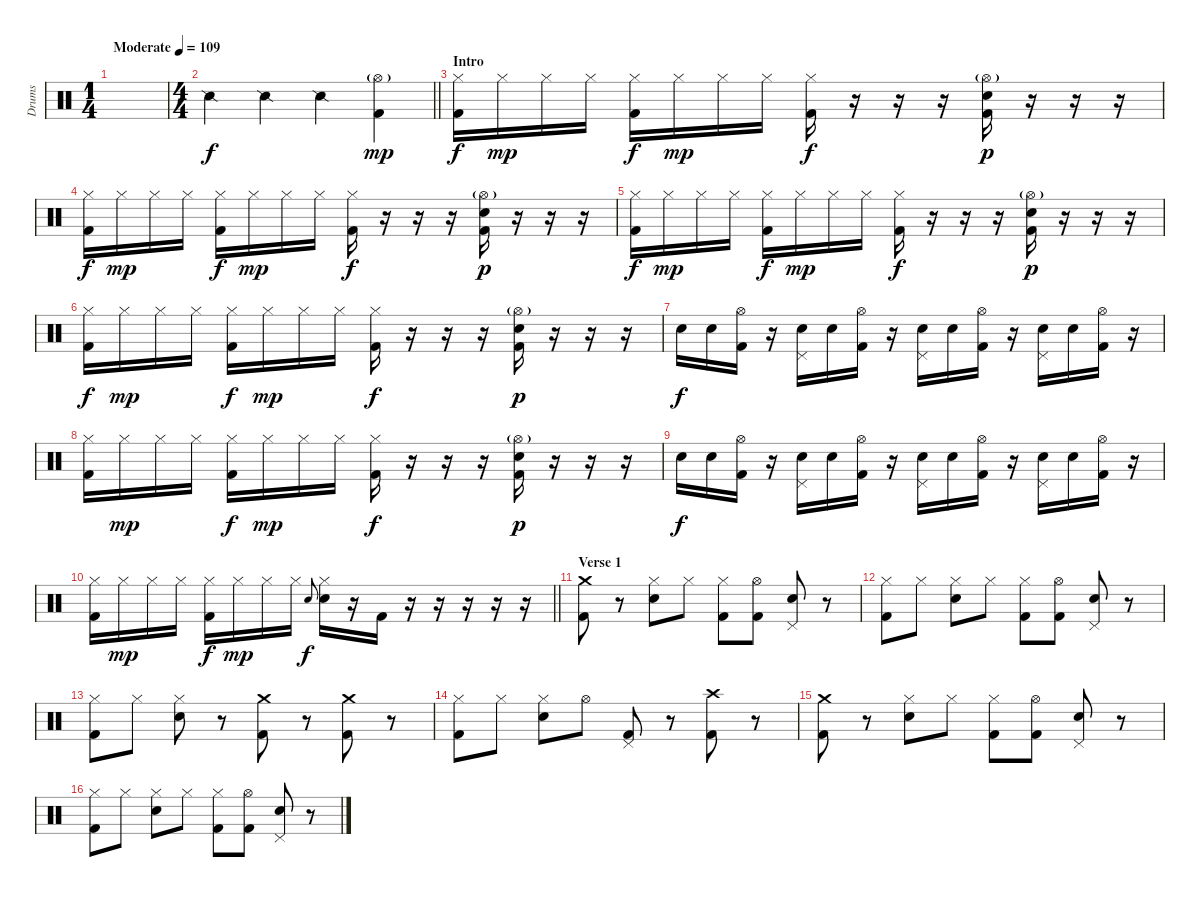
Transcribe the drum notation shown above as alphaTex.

\track ("Drums" "Drums") {instrument percussion}
\staff {score}
\articulation defaults
\ts (1 4)
\tempo (109 "Moderate")
\clef neutral
\ks c
|
\ts (4 4)
\barLineRight lightlight "Snare (side stick) 2".4 "Snare (side stick) 2".4 "Snare (side stick) 2".4
("Hi-Hat (open)"{g} "Kick (hit) 2").4{dy mp} |
\section ("" "Intro")
("Hi-Hat (closed)" "Kick (hit) 2").16{dy f} "Hi-Hat (closed)".16{dy mp} "Hi-Hat (closed)".16 "Hi-Hat (closed)".16 ("Hi-Hat (closed)" "Kick (hit) 2").16{dy f} "Hi-Hat (closed)".16{dy mp} "Hi-Hat (closed)".16 "Hi-Hat (closed)".16 ("Hi-Hat (closed)" "Kick (hit) 2").16{dy f} r.16 r.16 r.16 ("Hi-Hat (open)"{g} "Snare (hit) 2" "Kick (hit) 2").16{dy p} r.16 r.16 r.16 |
("Hi-Hat (closed)" "Kick (hit) 2").16{dy f} "Hi-Hat (closed)".16{dy mp} "Hi-Hat (closed)".16 "Hi-Hat (closed)".16 ("Hi-Hat (closed)" "Kick (hit) 2").16{dy f} "Hi-Hat (closed)".16{dy mp} "Hi-Hat (closed)".16 "Hi-Hat (closed)".16 ("Hi-Hat (closed)" "Kick (hit) 2").16{dy f} r.16 r.16 r.16 ("Hi-Hat (open)"{g} "Snare (hit) 2" "Kick (hit) 2").16{dy p} r.16 r.16 r.16 |
("Hi-Hat (closed)" "Kick (hit) 2").16{dy f} "Hi-Hat (closed)".16{dy mp} "Hi-Hat (closed)".16 "Hi-Hat (closed)".16 ("Hi-Hat (closed)" "Kick (hit) 2").16{dy f} "Hi-Hat (closed)".16{dy mp} "Hi-Hat (closed)".16 "Hi-Hat (closed)".16 ("Hi-Hat (closed)" "Kick (hit) 2").16{dy f} r.16 r.16 r.16 ("Hi-Hat (open)"{g} "Snare (hit) 2" "Kick (hit) 2").16{dy p} r.16 r.16 r.16 |
("Hi-Hat (closed)" "Kick (hit) 2").16{dy f} "Hi-Hat (closed)".16{dy mp} "Hi-Hat (closed)".16 "Hi-Hat (closed)".16 ("Hi-Hat (closed)" "Kick (hit) 2").16{dy f} "Hi-Hat (closed)".16{dy mp} "Hi-Hat (closed)".16 "Hi-Hat (closed)".16 ("Hi-Hat (closed)" "Kick (hit) 2").16{dy f} r.16 r.16 r.16 ("Hi-Hat (open)"{g} "Snare (hit) 2" "Kick (hit) 2").16{dy p} r.16 r.16 r.16 |
"Snare (hit) 2".16{dy f} "Snare (hit) 2".16 ("Hi-Hat (open)" "Kick (hit) 2").16 r.16 ("Pedal Hi-Hat (hit)" "Snare (hit) 2").16 "Snare (hit) 2".16 ("Hi-Hat (open)" "Kick (hit) 2").16 r.16 ("Pedal Hi-Hat (hit)" "Snare (hit) 2").16 "Snare (hit) 2".16 ("Hi-Hat (open)" "Kick (hit) 2").16 r.16 ("Pedal Hi-Hat (hit)" "Snare (hit) 2").16 "Snare (hit) 2".16 ("Hi-Hat (open)" "Kick (hit) 2").16 r.16 |
("Hi-Hat (closed)" "Kick (hit) 2").16 "Hi-Hat (closed)".16{dy mp} "Hi-Hat (closed)".16 "Hi-Hat (closed)".16 ("Hi-Hat (closed)" "Kick (hit) 2").16{dy f} "Hi-Hat (closed)".16{dy mp} "Hi-Hat (closed)".16 "Hi-Hat (closed)".16 ("Hi-Hat (closed)" "Kick (hit) 2").16{dy f} r.16 r.16 r.16 ("Hi-Hat (open)"{g} "Snare (hit) 2" "Kick (hit) 2").16{dy p} r.16 r.16 r.16 |
"Snare (hit) 2".16{dy f} "Snare (hit) 2".16 ("Hi-Hat (open)" "Kick (hit) 2").16 r.16 ("Pedal Hi-Hat (hit)" "Snare (hit) 2").16 "Snare (hit) 2".16 ("Hi-Hat (open)" "Kick (hit) 2").16 r.16 ("Pedal Hi-Hat (hit)" "Snare (hit) 2").16 "Snare (hit) 2".16 ("Hi-Hat (open)" "Kick (hit) 2").16 r.16 ("Pedal Hi-Hat (hit)" "Snare (hit) 2").16 "Snare (hit) 2".16 ("Hi-Hat (open)" "Kick (hit) 2").16 r.16 |
\barLineRight lightlight
("Hi-Hat (closed)" "Kick (hit) 2").16 "Hi-Hat (closed)".16{dy mp} "Hi-Hat (closed)".16 "Hi-Hat (closed)".16 ("Hi-Hat (closed)" "Kick (hit) 2").16{dy f} "Hi-Hat (closed)".16{dy mp} "Hi-Hat (closed)".16 "Hi-Hat (closed)".16 "Snare (hit) 2".8{gr onbeat dy f} ("Hi-Hat (closed)" "Snare (hit) 2").16 r.16 "Kick (hit) 2".16 r.16 r.16 r.16 r.16 r.16 |
\section ("" "Verse 1")
("Crash medium (hit)" "Kick (hit) 2").8 r.8 ("Hi-Hat (closed)" "Snare (hit) 2").8 "Hi-Hat (closed)".8 ("Hi-Hat (closed)" "Kick (hit) 2").8 ("Hi-Hat (open)" "Kick (hit) 2").8 ("Pedal Hi-Hat (hit)" "Snare (hit) 2").8 r.8 |
("Hi-Hat (closed)" "Kick (hit) 2").8 "Hi-Hat (closed)".8 ("Hi-Hat (closed)" "Snare (hit) 2").8 "Hi-Hat (closed)".8 ("Hi-Hat (closed)" "Kick (hit) 2").8 ("Hi-Hat (open)" "Kick (hit) 2").8 ("Pedal Hi-Hat (hit)" "Snare (hit) 2").8 r.8 |
("Hi-Hat (closed)" "Kick (hit) 2").8 "Hi-Hat (closed)".8 ("Hi-Hat (closed)" "Snare (hit) 2").8 r.8 ("Crash medium (hit)" "Kick (hit) 2").8 r.8 ("Crash medium (hit)" "Kick (hit) 2").8 r.8 |
("Hi-Hat (closed)" "Kick (hit) 2").8 "Hi-Hat (closed)".8 ("Hi-Hat (closed)" "Snare (hit) 2").8 "Hi-Hat (open)".8 ("Pedal Hi-Hat (hit)" "Kick (hit) 2").8 r.8 ("Crash high (hit)" "Kick (hit) 2").8 r.8 |
("Crash medium (hit)" "Kick (hit) 2").8 r.8 ("Hi-Hat (closed)" "Snare (hit) 2").8 "Hi-Hat (closed)".8 ("Hi-Hat (closed)" "Kick (hit) 2").8 ("Hi-Hat (open)" "Kick (hit) 2").8 ("Pedal Hi-Hat (hit)" "Snare (hit) 2").8 r.8 |
("Hi-Hat (closed)" "Kick (hit) 2").8 "Hi-Hat (closed)".8 ("Hi-Hat (closed)" "Snare (hit) 2").8 "Hi-Hat (closed)".8 ("Hi-Hat (closed)" "Kick (hit) 2").8 ("Hi-Hat (open)" "Kick (hit) 2").8 ("Pedal Hi-Hat (hit)" "Snare (hit) 2").8 r.8
